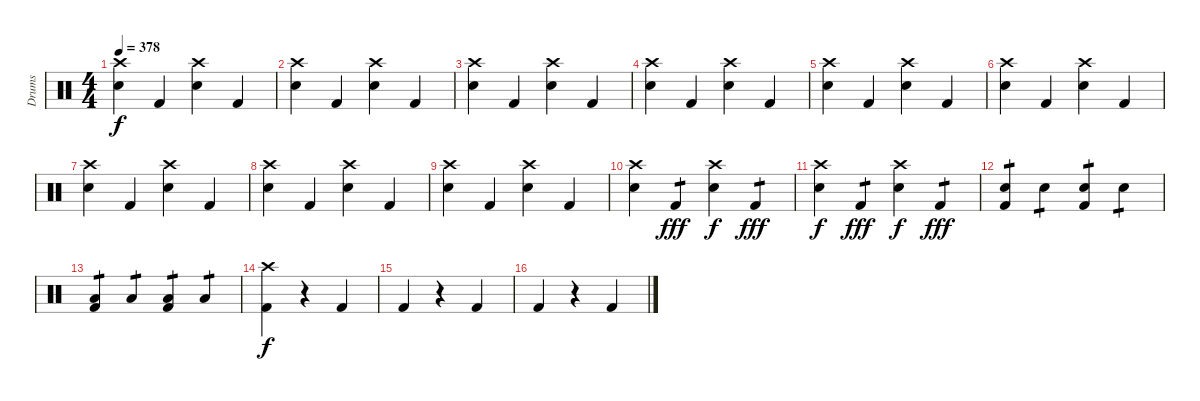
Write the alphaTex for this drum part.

\track ("Drums" "Drums") {instrument percussion}
\staff {score}
\articulation defaults
\ts (4 4)
\tempo 378
\clef neutral
\ks c
("Crash high (hit)" "Electric Snare (hit)").4{dy f} "Kick (hit) 2".4 ("Crash high (hit)" "Electric Snare (hit)").4 "Kick (hit) 2".4 |
("Crash high (hit)" "Electric Snare (hit)").4 "Kick (hit) 2".4 ("Crash high (hit)" "Electric Snare (hit)").4 "Kick (hit) 2".4 |
("Crash high (hit)" "Electric Snare (hit)").4 "Kick (hit) 2".4 ("Crash high (hit)" "Electric Snare (hit)").4 "Kick (hit) 2".4 |
("Crash high (hit)" "Electric Snare (hit)").4 "Kick (hit) 2".4 ("Crash high (hit)" "Electric Snare (hit)").4 "Kick (hit) 2".4 |
("Crash high (hit)" "Electric Snare (hit)").4 "Kick (hit) 2".4 ("Crash high (hit)" "Electric Snare (hit)").4 "Kick (hit) 2".4 |
("Crash high (hit)" "Electric Snare (hit)").4 "Kick (hit) 2".4 ("Crash high (hit)" "Electric Snare (hit)").4 "Kick (hit) 2".4 |
("Crash high (hit)" "Electric Snare (hit)").4 "Kick (hit) 2".4 ("Crash high (hit)" "Electric Snare (hit)").4 "Kick (hit) 2".4 |
("Crash high (hit)" "Electric Snare (hit)").4 "Kick (hit) 2".4 ("Crash high (hit)" "Electric Snare (hit)").4 "Kick (hit) 2".4 |
("Crash high (hit)" "Electric Snare (hit)").4 "Kick (hit) 2".4 ("Crash high (hit)" "Electric Snare (hit)").4 "Kick (hit) 2".4 |
("Crash high (hit)" "Electric Snare (hit)").4 "Kick (hit) 2".4{tp 1 dy fff} ("Crash high (hit)" "Electric Snare (hit)").4{dy f} "Kick (hit) 2".4{tp 1 dy fff} |
("Crash high (hit)" "Electric Snare (hit)").4{dy f} "Kick (hit) 2".4{tp 1 dy fff} ("Crash high (hit)" "Electric Snare (hit)").4{dy f} "Kick (hit) 2".4{tp 1 dy fff} |
("Electric Snare (hit)" "Kick (hit) 2").4{tp 1} "Electric Snare (hit)".4{tp 1} ("Electric Snare (hit)" "Kick (hit) 2").4{tp 1} "Electric Snare (hit)".4{tp 1} |
("Low Floor Tom (hit)" "Kick (hit) 2").4{tp 1} "Low Floor Tom (hit)".4{tp 1} ("Low Floor Tom (hit)" "Kick (hit) 2").4{tp 1} "Low Floor Tom (hit)".4{tp 1} |
("Crash high (hit)" "Kick (hit) 2").4{dy f} r.4 "Kick (hit) 2".4 |
"Kick (hit) 2".4 r.4 "Kick (hit) 2".4 |
"Kick (hit) 2".4 r.4 "Kick (hit) 2".4
